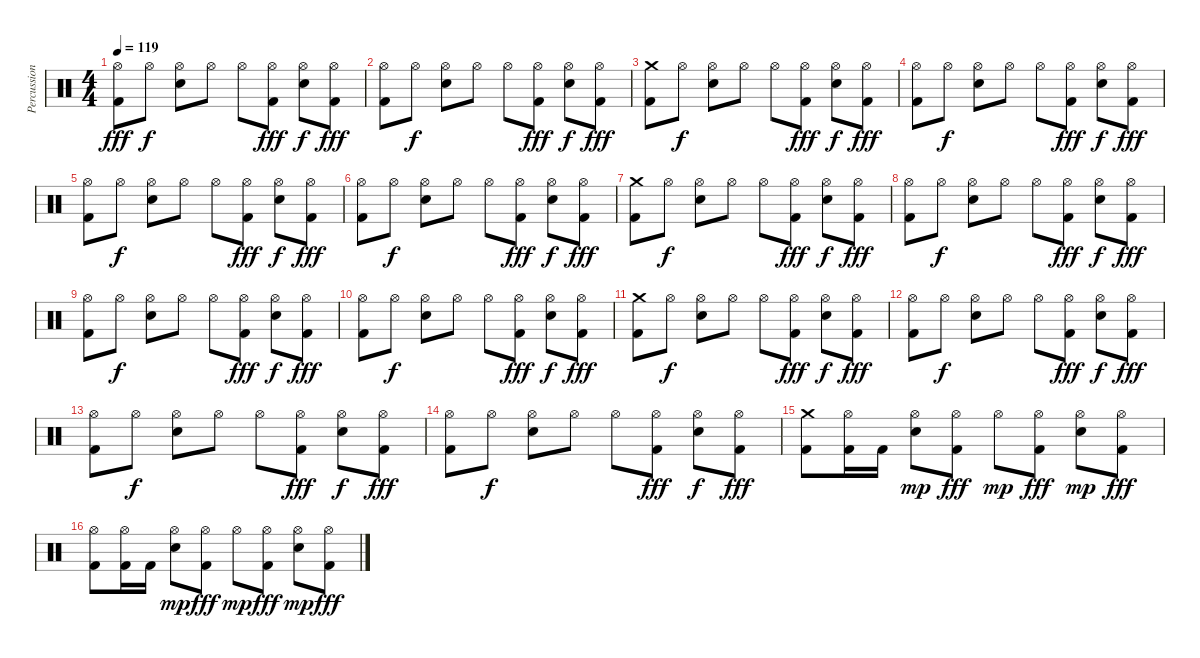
\track ("Percussion" "Percussion") {instrument percussion}
\staff {score}
\articulation defaults
\ts (4 4)
\tempo 119
\clef neutral
\ks c
("Hi-Hat (open)" "Kick (hit) 2").8{dy fff} "Hi-Hat (open)".8{dy f} ("Hi-Hat (open)" "Electric Snare (hit)").8 "Hi-Hat (open)".8 "Hi-Hat (open)".8 ("Hi-Hat (open)" "Kick (hit) 2").8{dy fff} ("Hi-Hat (open)" "Electric Snare (hit)").8{dy f} ("Hi-Hat (open)" "Kick (hit) 2").8{dy fff} |
("Hi-Hat (open)" "Kick (hit) 2").8 "Hi-Hat (open)".8{dy f} ("Hi-Hat (open)" "Electric Snare (hit)").8 "Hi-Hat (open)".8 "Hi-Hat (open)".8 ("Hi-Hat (open)" "Kick (hit) 2").8{dy fff} ("Hi-Hat (open)" "Electric Snare (hit)").8{dy f} ("Hi-Hat (open)" "Kick (hit) 2").8{dy fff} |
("Crash medium (hit)" "Kick (hit) 2").8 "Hi-Hat (open)".8{dy f} ("Hi-Hat (open)" "Electric Snare (hit)").8 "Hi-Hat (open)".8 "Hi-Hat (open)".8 ("Hi-Hat (open)" "Kick (hit) 2").8{dy fff} ("Hi-Hat (open)" "Electric Snare (hit)").8{dy f} ("Hi-Hat (open)" "Kick (hit) 2").8{dy fff} |
("Hi-Hat (open)" "Kick (hit) 2").8 "Hi-Hat (open)".8{dy f} ("Hi-Hat (open)" "Electric Snare (hit)").8 "Hi-Hat (open)".8 "Hi-Hat (open)".8 ("Hi-Hat (open)" "Kick (hit) 2").8{dy fff} ("Hi-Hat (open)" "Electric Snare (hit)").8{dy f} ("Hi-Hat (open)" "Kick (hit) 2").8{dy fff} |
("Hi-Hat (open)" "Kick (hit) 2").8 "Hi-Hat (open)".8{dy f} ("Hi-Hat (open)" "Electric Snare (hit)").8 "Hi-Hat (open)".8 "Hi-Hat (open)".8 ("Hi-Hat (open)" "Kick (hit) 2").8{dy fff} ("Hi-Hat (open)" "Electric Snare (hit)").8{dy f} ("Hi-Hat (open)" "Kick (hit) 2").8{dy fff} |
("Hi-Hat (open)" "Kick (hit) 2").8 "Hi-Hat (open)".8{dy f} ("Hi-Hat (open)" "Electric Snare (hit)").8 "Hi-Hat (open)".8 "Hi-Hat (open)".8 ("Hi-Hat (open)" "Kick (hit) 2").8{dy fff} ("Hi-Hat (open)" "Electric Snare (hit)").8{dy f} ("Hi-Hat (open)" "Kick (hit) 2").8{dy fff} |
("Crash medium (hit)" "Kick (hit) 2").8 "Hi-Hat (open)".8{dy f} ("Hi-Hat (open)" "Electric Snare (hit)").8 "Hi-Hat (open)".8 "Hi-Hat (open)".8 ("Hi-Hat (open)" "Kick (hit) 2").8{dy fff} ("Hi-Hat (open)" "Electric Snare (hit)").8{dy f} ("Hi-Hat (open)" "Kick (hit) 2").8{dy fff} |
("Hi-Hat (open)" "Kick (hit) 2").8 "Hi-Hat (open)".8{dy f} ("Hi-Hat (open)" "Electric Snare (hit)").8 "Hi-Hat (open)".8 "Hi-Hat (open)".8 ("Hi-Hat (open)" "Kick (hit) 2").8{dy fff} ("Hi-Hat (open)" "Electric Snare (hit)").8{dy f} ("Hi-Hat (open)" "Kick (hit) 2").8{dy fff} |
("Hi-Hat (open)" "Kick (hit) 2").8 "Hi-Hat (open)".8{dy f} ("Hi-Hat (open)" "Electric Snare (hit)").8 "Hi-Hat (open)".8 "Hi-Hat (open)".8 ("Hi-Hat (open)" "Kick (hit) 2").8{dy fff} ("Hi-Hat (open)" "Electric Snare (hit)").8{dy f} ("Hi-Hat (open)" "Kick (hit) 2").8{dy fff} |
("Hi-Hat (open)" "Kick (hit) 2").8 "Hi-Hat (open)".8{dy f} ("Hi-Hat (open)" "Electric Snare (hit)").8 "Hi-Hat (open)".8 "Hi-Hat (open)".8 ("Hi-Hat (open)" "Kick (hit) 2").8{dy fff} ("Hi-Hat (open)" "Electric Snare (hit)").8{dy f} ("Hi-Hat (open)" "Kick (hit) 2").8{dy fff} |
("Crash medium (hit)" "Kick (hit) 2").8 "Hi-Hat (open)".8{dy f} ("Hi-Hat (open)" "Electric Snare (hit)").8 "Hi-Hat (open)".8 "Hi-Hat (open)".8 ("Hi-Hat (open)" "Kick (hit) 2").8{dy fff} ("Hi-Hat (open)" "Electric Snare (hit)").8{dy f} ("Hi-Hat (open)" "Kick (hit) 2").8{dy fff} |
("Hi-Hat (open)" "Kick (hit) 2").8 "Hi-Hat (open)".8{dy f} ("Hi-Hat (open)" "Electric Snare (hit)").8 "Hi-Hat (open)".8 "Hi-Hat (open)".8 ("Hi-Hat (open)" "Kick (hit) 2").8{dy fff} ("Hi-Hat (open)" "Electric Snare (hit)").8{dy f} ("Hi-Hat (open)" "Kick (hit) 2").8{dy fff} |
("Hi-Hat (open)" "Kick (hit) 2").8 "Hi-Hat (open)".8{dy f} ("Hi-Hat (open)" "Electric Snare (hit)").8 "Hi-Hat (open)".8 "Hi-Hat (open)".8 ("Hi-Hat (open)" "Kick (hit) 2").8{dy fff} ("Hi-Hat (open)" "Electric Snare (hit)").8{dy f} ("Hi-Hat (open)" "Kick (hit) 2").8{dy fff} |
("Hi-Hat (open)" "Kick (hit) 2").8 "Hi-Hat (open)".8{dy f} ("Hi-Hat (open)" "Electric Snare (hit)").8 "Hi-Hat (open)".8 "Hi-Hat (open)".8 ("Hi-Hat (open)" "Kick (hit) 2").8{dy fff} ("Hi-Hat (open)" "Electric Snare (hit)").8{dy f} ("Hi-Hat (open)" "Kick (hit) 2").8{dy fff} |
("Crash medium (hit)" "Kick (hit) 2").8 ("Hi-Hat (open)" "Kick (hit) 2").16 "Kick (hit) 2".16 ("Hi-Hat (open)" "Electric Snare (hit)").8{dy mp} ("Hi-Hat (open)" "Kick (hit) 2").8{dy fff} "Hi-Hat (open)".8{dy mp} ("Hi-Hat (open)" "Kick (hit) 2").8{dy fff} ("Hi-Hat (open)" "Electric Snare (hit)").8{dy mp} ("Hi-Hat (open)" "Kick (hit) 2").8{dy fff} |
("Hi-Hat (open)" "Kick (hit) 2").8 ("Hi-Hat (open)" "Kick (hit) 2").16 "Kick (hit) 2".16 ("Hi-Hat (open)" "Electric Snare (hit)").8{dy mp} ("Hi-Hat (open)" "Kick (hit) 2").8{dy fff} "Hi-Hat (open)".8{dy mp} ("Hi-Hat (open)" "Kick (hit) 2").8{dy fff} ("Hi-Hat (open)" "Electric Snare (hit)").8{dy mp} ("Hi-Hat (open)" "Kick (hit) 2").8{dy fff}
